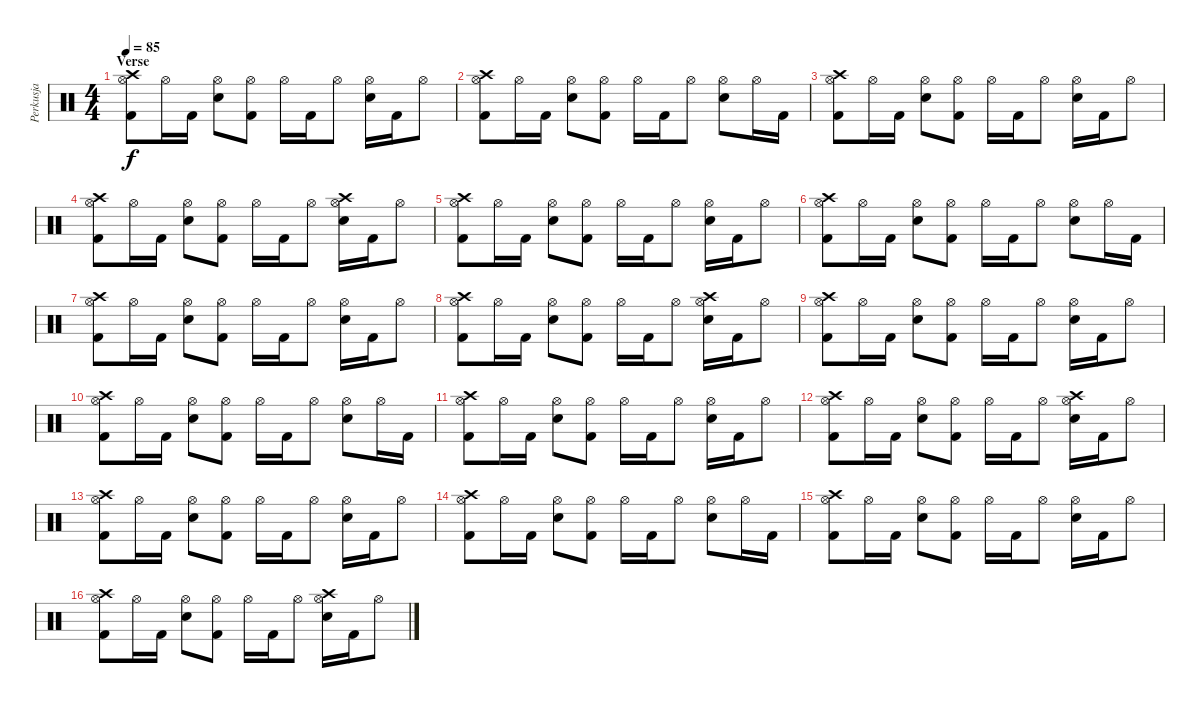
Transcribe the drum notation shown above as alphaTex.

\track ("Perkusja" "Perkusja") {instrument percussion}
\staff {score}
\articulation defaults
\ts (4 4)
\section ("" "Verse")
\tempo 85
\clef neutral
\ks c
("Hi-Hat (open)" "Kick (hit) 2" "Crash high (hit)").8{dy f} "Hi-Hat (open)".16 "Kick (hit) 2".16 ("Hi-Hat (open)" "Snare (hit) 2").8 ("Hi-Hat (open)" "Kick (hit) 2").8 "Hi-Hat (open)".16 "Kick (hit) 2".16 "Hi-Hat (open)".8 ("Hi-Hat (open)" "Snare (hit) 2").16 "Kick (hit) 2".16 "Hi-Hat (open)".8 |
("Hi-Hat (open)" "Kick (hit) 2" "Crash high (hit)").8 "Hi-Hat (open)".16 "Kick (hit) 2".16 ("Hi-Hat (open)" "Snare (hit) 2").8 ("Hi-Hat (open)" "Kick (hit) 2").8 "Hi-Hat (open)".16 "Kick (hit) 2".16 "Hi-Hat (open)".8 ("Hi-Hat (open)" "Snare (hit) 2").8 "Hi-Hat (open)".16 "Kick (hit) 2".16 |
("Hi-Hat (open)" "Kick (hit) 2" "Crash high (hit)").8 "Hi-Hat (open)".16 "Kick (hit) 2".16 ("Hi-Hat (open)" "Snare (hit) 2").8 ("Hi-Hat (open)" "Kick (hit) 2").8 "Hi-Hat (open)".16 "Kick (hit) 2".16 "Hi-Hat (open)".8 ("Hi-Hat (open)" "Snare (hit) 2").16 "Kick (hit) 2".16 "Hi-Hat (open)".8 |
("Hi-Hat (open)" "Kick (hit) 2" "Crash high (hit)").8 "Hi-Hat (open)".16 "Kick (hit) 2".16 ("Hi-Hat (open)" "Snare (hit) 2").8 ("Hi-Hat (open)" "Kick (hit) 2").8 "Hi-Hat (open)".16 "Kick (hit) 2".16 "Hi-Hat (open)".8 ("Hi-Hat (open)" "Snare (hit) 2" "Crash high (hit)").16 "Kick (hit) 2".16 "Hi-Hat (open)".8 |
("Hi-Hat (open)" "Kick (hit) 2" "Crash high (hit)").8 "Hi-Hat (open)".16 "Kick (hit) 2".16 ("Hi-Hat (open)" "Snare (hit) 2").8 ("Hi-Hat (open)" "Kick (hit) 2").8 "Hi-Hat (open)".16 "Kick (hit) 2".16 "Hi-Hat (open)".8 ("Hi-Hat (open)" "Snare (hit) 2").16 "Kick (hit) 2".16 "Hi-Hat (open)".8 |
("Hi-Hat (open)" "Kick (hit) 2" "Crash high (hit)").8 "Hi-Hat (open)".16 "Kick (hit) 2".16 ("Hi-Hat (open)" "Snare (hit) 2").8 ("Hi-Hat (open)" "Kick (hit) 2").8 "Hi-Hat (open)".16 "Kick (hit) 2".16 "Hi-Hat (open)".8 ("Hi-Hat (open)" "Snare (hit) 2").8 "Hi-Hat (open)".16 "Kick (hit) 2".16 |
("Hi-Hat (open)" "Kick (hit) 2" "Crash high (hit)").8 "Hi-Hat (open)".16 "Kick (hit) 2".16 ("Hi-Hat (open)" "Snare (hit) 2").8 ("Hi-Hat (open)" "Kick (hit) 2").8 "Hi-Hat (open)".16 "Kick (hit) 2".16 "Hi-Hat (open)".8 ("Hi-Hat (open)" "Snare (hit) 2").16 "Kick (hit) 2".16 "Hi-Hat (open)".8 |
("Hi-Hat (open)" "Kick (hit) 2" "Crash high (hit)").8 "Hi-Hat (open)".16 "Kick (hit) 2".16 ("Hi-Hat (open)" "Snare (hit) 2").8 ("Hi-Hat (open)" "Kick (hit) 2").8 "Hi-Hat (open)".16 "Kick (hit) 2".16 "Hi-Hat (open)".8 ("Hi-Hat (open)" "Snare (hit) 2" "Crash high (hit)").16 "Kick (hit) 2".16 "Hi-Hat (open)".8 |
("Hi-Hat (open)" "Kick (hit) 2" "Crash high (hit)").8 "Hi-Hat (open)".16 "Kick (hit) 2".16 ("Hi-Hat (open)" "Snare (hit) 2").8 ("Hi-Hat (open)" "Kick (hit) 2").8 "Hi-Hat (open)".16 "Kick (hit) 2".16 "Hi-Hat (open)".8 ("Hi-Hat (open)" "Snare (hit) 2").16 "Kick (hit) 2".16 "Hi-Hat (open)".8 |
("Hi-Hat (open)" "Kick (hit) 2" "Crash high (hit)").8 "Hi-Hat (open)".16 "Kick (hit) 2".16 ("Hi-Hat (open)" "Snare (hit) 2").8 ("Hi-Hat (open)" "Kick (hit) 2").8 "Hi-Hat (open)".16 "Kick (hit) 2".16 "Hi-Hat (open)".8 ("Hi-Hat (open)" "Snare (hit) 2").8 "Hi-Hat (open)".16 "Kick (hit) 2".16 |
("Hi-Hat (open)" "Kick (hit) 2" "Crash high (hit)").8 "Hi-Hat (open)".16 "Kick (hit) 2".16 ("Hi-Hat (open)" "Snare (hit) 2").8 ("Hi-Hat (open)" "Kick (hit) 2").8 "Hi-Hat (open)".16 "Kick (hit) 2".16 "Hi-Hat (open)".8 ("Hi-Hat (open)" "Snare (hit) 2").16 "Kick (hit) 2".16 "Hi-Hat (open)".8 |
("Hi-Hat (open)" "Kick (hit) 2" "Crash high (hit)").8 "Hi-Hat (open)".16 "Kick (hit) 2".16 ("Hi-Hat (open)" "Snare (hit) 2").8 ("Hi-Hat (open)" "Kick (hit) 2").8 "Hi-Hat (open)".16 "Kick (hit) 2".16 "Hi-Hat (open)".8 ("Hi-Hat (open)" "Snare (hit) 2" "Crash high (hit)").16 "Kick (hit) 2".16 "Hi-Hat (open)".8 |
("Hi-Hat (open)" "Kick (hit) 2" "Crash high (hit)").8 "Hi-Hat (open)".16 "Kick (hit) 2".16 ("Hi-Hat (open)" "Snare (hit) 2").8 ("Hi-Hat (open)" "Kick (hit) 2").8 "Hi-Hat (open)".16 "Kick (hit) 2".16 "Hi-Hat (open)".8 ("Hi-Hat (open)" "Snare (hit) 2").16 "Kick (hit) 2".16 "Hi-Hat (open)".8 |
("Hi-Hat (open)" "Kick (hit) 2" "Crash high (hit)").8 "Hi-Hat (open)".16 "Kick (hit) 2".16 ("Hi-Hat (open)" "Snare (hit) 2").8 ("Hi-Hat (open)" "Kick (hit) 2").8 "Hi-Hat (open)".16 "Kick (hit) 2".16 "Hi-Hat (open)".8 ("Hi-Hat (open)" "Snare (hit) 2").8 "Hi-Hat (open)".16 "Kick (hit) 2".16 |
("Hi-Hat (open)" "Kick (hit) 2" "Crash high (hit)").8 "Hi-Hat (open)".16 "Kick (hit) 2".16 ("Hi-Hat (open)" "Snare (hit) 2").8 ("Hi-Hat (open)" "Kick (hit) 2").8 "Hi-Hat (open)".16 "Kick (hit) 2".16 "Hi-Hat (open)".8 ("Hi-Hat (open)" "Snare (hit) 2").16 "Kick (hit) 2".16 "Hi-Hat (open)".8 |
("Hi-Hat (open)" "Kick (hit) 2" "Crash high (hit)").8 "Hi-Hat (open)".16 "Kick (hit) 2".16 ("Hi-Hat (open)" "Snare (hit) 2").8 ("Hi-Hat (open)" "Kick (hit) 2").8 "Hi-Hat (open)".16 "Kick (hit) 2".16 "Hi-Hat (open)".8 ("Hi-Hat (open)" "Snare (hit) 2" "Crash high (hit)").16 "Kick (hit) 2".16 "Hi-Hat (open)".8
